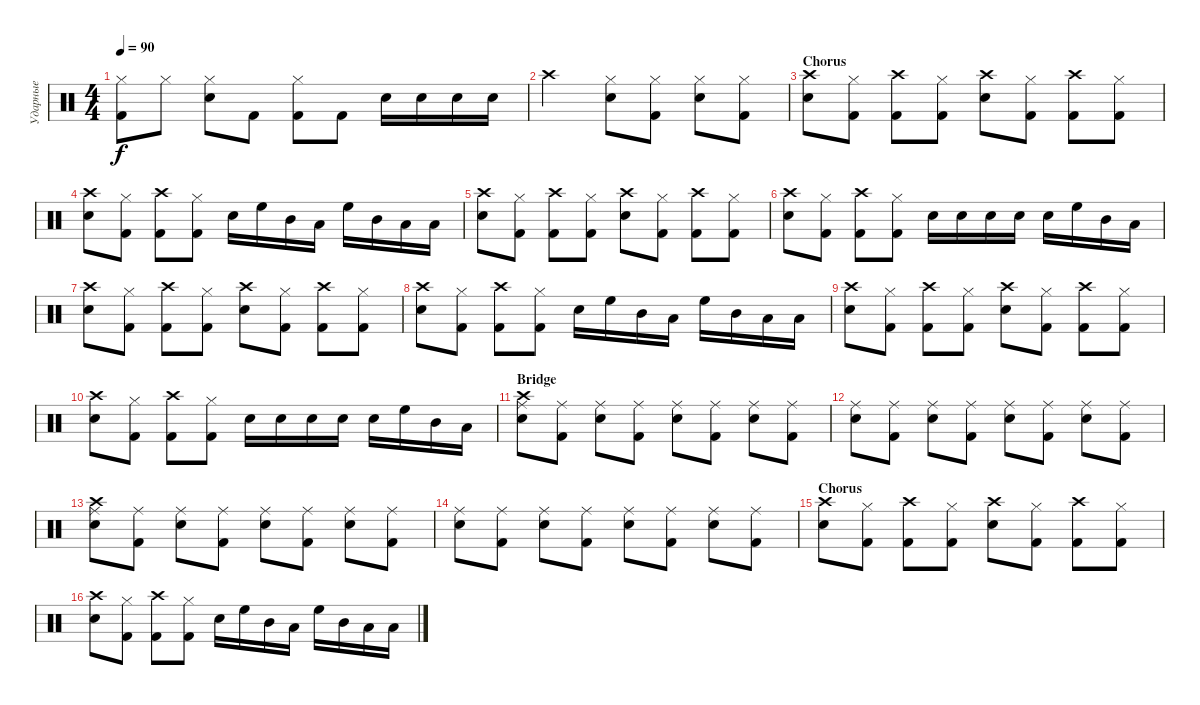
\track ("Ударные" "Ударные") {instrument percussion}
\staff {score}
\articulation defaults
\ts (4 4)
\tempo 90
\clef neutral
\ks c
("Hi-Hat (closed)" "Kick (hit) 2").8{dy f} "Hi-Hat (closed)".8 ("Hi-Hat (closed)" "Snare (hit) 2").8 "Kick (hit) 2".8 ("Hi-Hat (closed)" "Kick (hit) 2").8 "Kick (hit) 2".8 "Snare (hit) 2".16 "Snare (hit) 2".16 "Snare (hit) 2".16 "Snare (hit) 2".16 |
"Crash high (hit)".2 ("Hi-Hat (closed)" "Snare (hit) 2").8 ("Hi-Hat (closed)" "Kick (hit) 2").8 ("Hi-Hat (closed)" "Snare (hit) 2").8 ("Hi-Hat (closed)" "Kick (hit) 2").8 |
\section ("" "Chorus")
("Snare (hit) 2" "Crash high (hit)").8 ("Hi-Hat (closed)" "Kick (hit) 2").8 ("Kick (hit) 2" "Crash high (hit)").8 ("Hi-Hat (closed)" "Kick (hit) 2").8 ("Snare (hit) 2" "Crash high (hit)").8 ("Hi-Hat (closed)" "Kick (hit) 2").8 ("Crash high (hit)" "Kick (hit) 2").8 ("Hi-Hat (closed)" "Kick (hit) 2").8 |
("Snare (hit) 2" "Crash high (hit)").8 ("Hi-Hat (closed)" "Kick (hit) 2").8 ("Kick (hit) 2" "Crash high (hit)").8 ("Hi-Hat (closed)" "Kick (hit) 2").8 "Snare (hit) 2".16 "High Floor Tom (hit)".16 "Mid Tom (hit)".16 "Low Tom (hit)".16 "High Floor Tom (hit)".16 "Mid Tom (hit)".16 "Low Tom (hit)".16 "Low Floor Tom (hit)".16 |
("Snare (hit) 2" "Crash high (hit)").8 ("Hi-Hat (closed)" "Kick (hit) 2").8 ("Kick (hit) 2" "Crash high (hit)").8 ("Hi-Hat (closed)" "Kick (hit) 2").8 ("Snare (hit) 2" "Crash high (hit)").8 ("Hi-Hat (closed)" "Kick (hit) 2").8 ("Crash high (hit)" "Kick (hit) 2").8 ("Hi-Hat (closed)" "Kick (hit) 2").8 |
("Snare (hit) 2" "Crash high (hit)").8 ("Hi-Hat (closed)" "Kick (hit) 2").8 ("Kick (hit) 2" "Crash high (hit)").8 ("Hi-Hat (closed)" "Kick (hit) 2").8 "Snare (hit) 2".16 "Snare (hit) 2".16 "Snare (hit) 2".16 "Snare (hit) 2".16 "Snare (hit) 2".16 "High Floor Tom (hit)".16 "Mid Tom (hit)".16 "Low Tom (hit)".16 |
("Snare (hit) 2" "Crash high (hit)").8 ("Hi-Hat (closed)" "Kick (hit) 2").8 ("Kick (hit) 2" "Crash high (hit)").8 ("Hi-Hat (closed)" "Kick (hit) 2").8 ("Snare (hit) 2" "Crash high (hit)").8 ("Hi-Hat (closed)" "Kick (hit) 2").8 ("Crash high (hit)" "Kick (hit) 2").8 ("Hi-Hat (closed)" "Kick (hit) 2").8 |
("Snare (hit) 2" "Crash high (hit)").8 ("Hi-Hat (closed)" "Kick (hit) 2").8 ("Kick (hit) 2" "Crash high (hit)").8 ("Hi-Hat (closed)" "Kick (hit) 2").8 "Snare (hit) 2".16 "High Floor Tom (hit)".16 "Mid Tom (hit)".16 "Low Tom (hit)".16 "High Floor Tom (hit)".16 "Mid Tom (hit)".16 "Low Tom (hit)".16 "Low Floor Tom (hit)".16 |
("Snare (hit) 2" "Crash high (hit)").8 ("Hi-Hat (closed)" "Kick (hit) 2").8 ("Kick (hit) 2" "Crash high (hit)").8 ("Hi-Hat (closed)" "Kick (hit) 2").8 ("Snare (hit) 2" "Crash high (hit)").8 ("Hi-Hat (closed)" "Kick (hit) 2").8 ("Crash high (hit)" "Kick (hit) 2").8 ("Hi-Hat (closed)" "Kick (hit) 2").8 |
("Snare (hit) 2" "Crash high (hit)").8 ("Hi-Hat (closed)" "Kick (hit) 2").8 ("Kick (hit) 2" "Crash high (hit)").8 ("Hi-Hat (closed)" "Kick (hit) 2").8 "Snare (hit) 2".16 "Snare (hit) 2".16 "Snare (hit) 2".16 "Snare (hit) 2".16 "Snare (hit) 2".16 "High Floor Tom (hit)".16 "Mid Tom (hit)".16 "Low Tom (hit)".16 |
\section ("" "Bridge")
("Crash high (hit)" "Ride (middle)" "Snare (hit) 2").8 ("Ride (middle)" "Kick (hit) 2").8 ("Ride (middle)" "Snare (hit) 2").8 ("Ride (middle)" "Kick (hit) 2").8 ("Ride (middle)" "Snare (hit) 2").8 ("Ride (middle)" "Kick (hit) 2").8 ("Ride (middle)" "Snare (hit) 2").8 ("Ride (middle)" "Kick (hit) 2").8 |
("Ride (middle)" "Snare (hit) 2").8 ("Ride (middle)" "Kick (hit) 2").8 ("Ride (middle)" "Snare (hit) 2").8 ("Ride (middle)" "Kick (hit) 2").8 ("Ride (middle)" "Snare (hit) 2").8 ("Ride (middle)" "Kick (hit) 2").8 ("Ride (middle)" "Snare (hit) 2").8 ("Ride (middle)" "Kick (hit) 2").8 |
("Crash high (hit)" "Ride (middle)" "Snare (hit) 2").8 ("Ride (middle)" "Kick (hit) 2").8 ("Ride (middle)" "Snare (hit) 2").8 ("Ride (middle)" "Kick (hit) 2").8 ("Ride (middle)" "Snare (hit) 2").8 ("Ride (middle)" "Kick (hit) 2").8 ("Ride (middle)" "Snare (hit) 2").8 ("Ride (middle)" "Kick (hit) 2").8 |
("Ride (middle)" "Snare (hit) 2").8 ("Ride (middle)" "Kick (hit) 2").8 ("Ride (middle)" "Snare (hit) 2").8 ("Ride (middle)" "Kick (hit) 2").8 ("Ride (middle)" "Snare (hit) 2").8 ("Ride (middle)" "Kick (hit) 2").8 ("Ride (middle)" "Snare (hit) 2").8 ("Ride (middle)" "Kick (hit) 2").8 |
\section ("" "Chorus")
("Snare (hit) 2" "Crash high (hit)").8 ("Hi-Hat (closed)" "Kick (hit) 2").8 ("Kick (hit) 2" "Crash high (hit)").8 ("Hi-Hat (closed)" "Kick (hit) 2").8 ("Snare (hit) 2" "Crash high (hit)").8 ("Hi-Hat (closed)" "Kick (hit) 2").8 ("Crash high (hit)" "Kick (hit) 2").8 ("Hi-Hat (closed)" "Kick (hit) 2").8 |
("Snare (hit) 2" "Crash high (hit)").8 ("Hi-Hat (closed)" "Kick (hit) 2").8 ("Kick (hit) 2" "Crash high (hit)").8 ("Hi-Hat (closed)" "Kick (hit) 2").8 "Snare (hit) 2".16 "High Floor Tom (hit)".16 "Mid Tom (hit)".16 "Low Tom (hit)".16 "High Floor Tom (hit)".16 "Mid Tom (hit)".16 "Low Tom (hit)".16 "Low Floor Tom (hit)".16
